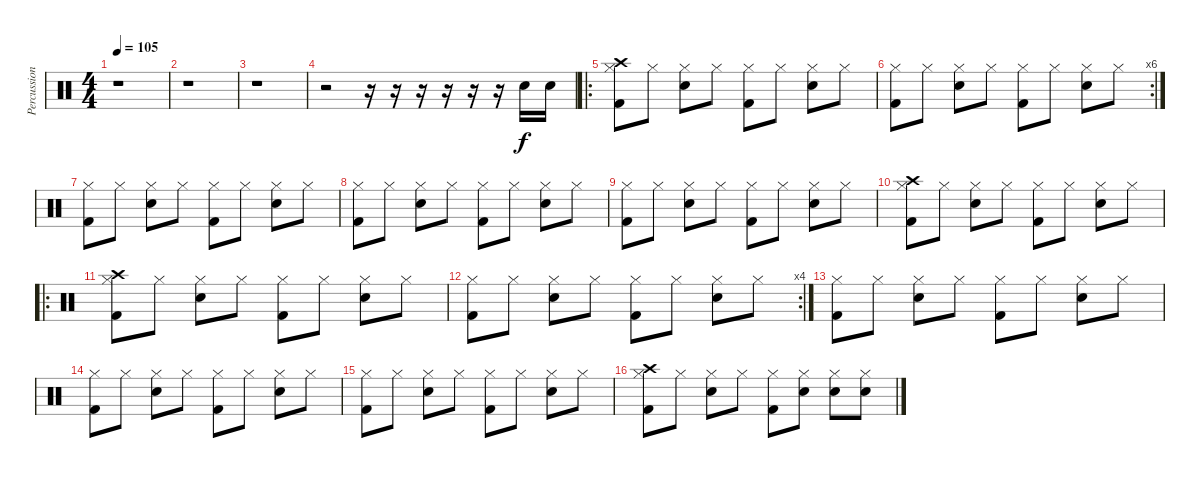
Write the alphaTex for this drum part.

\track ("Percussion" "Percussion") {instrument percussion}
\staff {score}
\articulation defaults
\ts (4 4)
\tempo 105
\clef neutral
\ks c
r.1{dy f} |
r.1 |
r.1 |
r.2 r.16 r.16 r.16 r.16 r.16 r.16 "Snare (hit) 2".16 "Snare (hit) 2".16 |
\ro
("Hi-Hat (closed)" "Crash high (hit)" "Kick (hit) 2").8 "Hi-Hat (closed)".8 ("Hi-Hat (closed)" "Snare (hit) 2").8 "Hi-Hat (closed)".8 ("Hi-Hat (closed)" "Kick (hit) 2").8 "Hi-Hat (closed)".8 ("Hi-Hat (closed)" "Snare (hit) 2").8 "Hi-Hat (closed)".8 |
\rc 6
("Hi-Hat (closed)" "Kick (hit) 2").8 "Hi-Hat (closed)".8 ("Hi-Hat (closed)" "Snare (hit) 2").8 "Hi-Hat (closed)".8 ("Hi-Hat (closed)" "Kick (hit) 2").8 "Hi-Hat (closed)".8 ("Hi-Hat (closed)" "Snare (hit) 2").8 "Hi-Hat (closed)".8 |
("Hi-Hat (closed)" "Kick (hit) 2").8 "Hi-Hat (closed)".8 ("Hi-Hat (closed)" "Snare (hit) 2").8 "Hi-Hat (closed)".8 ("Hi-Hat (closed)" "Kick (hit) 2").8 "Hi-Hat (closed)".8 ("Hi-Hat (closed)" "Snare (hit) 2").8 "Hi-Hat (closed)".8 |
("Hi-Hat (closed)" "Kick (hit) 2").8 "Hi-Hat (closed)".8 ("Hi-Hat (closed)" "Snare (hit) 2").8 "Hi-Hat (closed)".8 ("Hi-Hat (closed)" "Kick (hit) 2").8 "Hi-Hat (closed)".8 ("Hi-Hat (closed)" "Snare (hit) 2").8 "Hi-Hat (closed)".8 |
("Hi-Hat (closed)" "Kick (hit) 2").8 "Hi-Hat (closed)".8 ("Hi-Hat (closed)" "Snare (hit) 2").8 "Hi-Hat (closed)".8 ("Hi-Hat (closed)" "Kick (hit) 2").8 "Hi-Hat (closed)".8 ("Hi-Hat (closed)" "Snare (hit) 2").8 "Hi-Hat (closed)".8 |
("Hi-Hat (closed)" "Crash high (hit)" "Kick (hit) 2").8 "Hi-Hat (closed)".8 ("Hi-Hat (closed)" "Snare (hit) 2").8 "Hi-Hat (closed)".8 ("Hi-Hat (closed)" "Kick (hit) 2").8 "Hi-Hat (closed)".8 ("Hi-Hat (closed)" "Snare (hit) 2").8 "Hi-Hat (closed)".8 |
\ro
("Hi-Hat (closed)" "Crash high (hit)" "Kick (hit) 2").8 "Hi-Hat (closed)".8 ("Hi-Hat (closed)" "Snare (hit) 2").8 "Hi-Hat (closed)".8 ("Hi-Hat (closed)" "Kick (hit) 2").8 "Hi-Hat (closed)".8 ("Hi-Hat (closed)" "Snare (hit) 2").8 "Hi-Hat (closed)".8 |
\rc 4
("Hi-Hat (closed)" "Kick (hit) 2").8 "Hi-Hat (closed)".8 ("Hi-Hat (closed)" "Snare (hit) 2").8 "Hi-Hat (closed)".8 ("Hi-Hat (closed)" "Kick (hit) 2").8 "Hi-Hat (closed)".8 ("Hi-Hat (closed)" "Snare (hit) 2").8 "Hi-Hat (closed)".8 |
("Hi-Hat (closed)" "Kick (hit) 2").8 "Hi-Hat (closed)".8 ("Hi-Hat (closed)" "Snare (hit) 2").8 "Hi-Hat (closed)".8 ("Hi-Hat (closed)" "Kick (hit) 2").8 "Hi-Hat (closed)".8 ("Hi-Hat (closed)" "Snare (hit) 2").8 "Hi-Hat (closed)".8 |
("Hi-Hat (closed)" "Kick (hit) 2").8 "Hi-Hat (closed)".8 ("Hi-Hat (closed)" "Snare (hit) 2").8 "Hi-Hat (closed)".8 ("Hi-Hat (closed)" "Kick (hit) 2").8 "Hi-Hat (closed)".8 ("Hi-Hat (closed)" "Snare (hit) 2").8 "Hi-Hat (closed)".8 |
("Hi-Hat (closed)" "Kick (hit) 2").8 "Hi-Hat (closed)".8 ("Hi-Hat (closed)" "Snare (hit) 2").8 "Hi-Hat (closed)".8 ("Hi-Hat (closed)" "Kick (hit) 2").8 "Hi-Hat (closed)".8 ("Hi-Hat (closed)" "Snare (hit) 2").8 "Hi-Hat (closed)".8 |
("Hi-Hat (closed)" "Crash high (hit)" "Kick (hit) 2").8 "Hi-Hat (closed)".8 ("Hi-Hat (closed)" "Snare (hit) 2").8 "Hi-Hat (closed)".8 ("Hi-Hat (closed)" "Kick (hit) 2").8 ("Hi-Hat (closed)" "Snare (hit) 2").8 ("Hi-Hat (closed)" "Snare (hit) 2").8 ("Hi-Hat (closed)" "Snare (hit) 2").8
